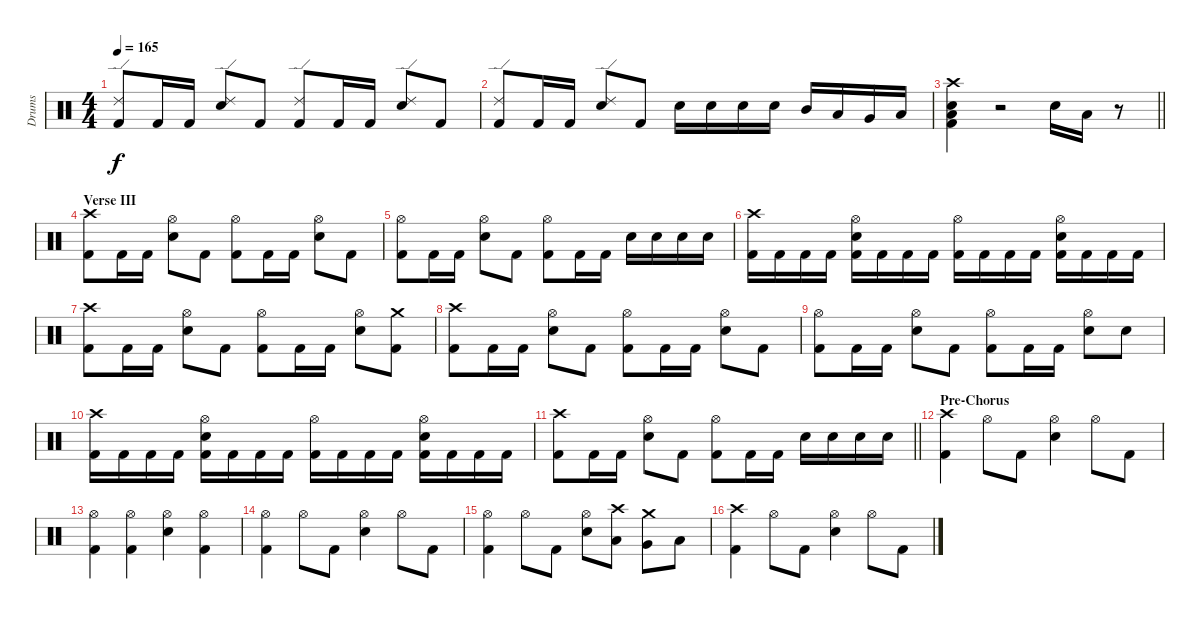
\track ("Drums" "Drums") {instrument percussion}
\staff {score}
\articulation defaults
\ts (4 4)
\tempo 165
\clef neutral
\ks c
("Ride (edge) 2" "Kick (hit) 2").8{dy f} "Kick (hit) 2".16 "Kick (hit) 2".16 ("Ride (edge) 2" "Snare (hit) 2").8 "Kick (hit) 2".8 ("Ride (edge) 2" "Kick (hit) 2").8 "Kick (hit) 2".16 "Kick (hit) 2".16 ("Ride (edge) 2" "Snare (hit) 2").8 "Kick (hit) 2".8 |
("Ride (edge) 2" "Kick (hit) 2").8 "Kick (hit) 2".16 "Kick (hit) 2".16 ("Ride (edge) 2" "Snare (hit) 2").8 "Kick (hit) 2".8 "Snare (hit) 2".16 "Snare (hit) 2".16 "Snare (hit) 2".16 "Snare (hit) 2".16 "Mid Tom (hit)".16 "Low Tom (hit)".16 "Very Low Tom (hit)".16 "Low Floor Tom (hit)".16 |
\barLineRight lightlight
("Crash high (hit)" "Snare (hit) 2" "Low Floor Tom (hit)" "Kick (hit) 2").4 r.2 "Snare (hit) 2".16 "Low Tom (hit)".16 r.8 |
\section ("" "Verse III")
("Crash high (hit)" "Kick (hit) 2").8 "Kick (hit) 2".16 "Kick (hit) 2".16 ("Hi-Hat (open)" "Snare (hit) 2").8 "Kick (hit) 2".8 ("Hi-Hat (open)" "Kick (hit) 2").8 "Kick (hit) 2".16 "Kick (hit) 2".16 ("Hi-Hat (open)" "Snare (hit) 2").8 "Kick (hit) 2".8 |
("Hi-Hat (open)" "Kick (hit) 2").8 "Kick (hit) 2".16 "Kick (hit) 2".16 ("Hi-Hat (open)" "Snare (hit) 2").8 "Kick (hit) 2".8 ("Hi-Hat (open)" "Kick (hit) 2").8 "Kick (hit) 2".16 "Kick (hit) 2".16 "Snare (hit) 2".16 "Snare (hit) 2".16 "Snare (hit) 2".16 "Snare (hit) 2".16 |
("Crash high (hit)" "Kick (hit) 2").16 "Kick (hit) 2".16 "Kick (hit) 2".16 "Kick (hit) 2".16 ("Hi-Hat (open)" "Snare (hit) 2" "Kick (hit) 2").16 "Kick (hit) 2".16 "Kick (hit) 2".16 "Kick (hit) 2".16 ("Hi-Hat (open)" "Kick (hit) 2").16 "Kick (hit) 2".16 "Kick (hit) 2".16 "Kick (hit) 2".16 ("Hi-Hat (open)" "Snare (hit) 2" "Kick (hit) 2").16 "Kick (hit) 2".16 "Kick (hit) 2".16 "Kick (hit) 2".16 |
("Crash high (hit)" "Kick (hit) 2").8 "Kick (hit) 2".16 "Kick (hit) 2".16 ("Hi-Hat (open)" "Snare (hit) 2").8 "Kick (hit) 2".8 ("Hi-Hat (open)" "Kick (hit) 2").8 "Kick (hit) 2".16 "Kick (hit) 2".16 ("Hi-Hat (open)" "Snare (hit) 2").8 ("Crash medium (hit)" "Kick (hit) 2").8 |
("Crash high (hit)" "Kick (hit) 2").8 "Kick (hit) 2".16 "Kick (hit) 2".16 ("Hi-Hat (open)" "Snare (hit) 2").8 "Kick (hit) 2".8 ("Hi-Hat (open)" "Kick (hit) 2").8 "Kick (hit) 2".16 "Kick (hit) 2".16 ("Hi-Hat (open)" "Snare (hit) 2").8 "Kick (hit) 2".8 |
("Hi-Hat (open)" "Kick (hit) 2").8 "Kick (hit) 2".16 "Kick (hit) 2".16 ("Hi-Hat (open)" "Snare (hit) 2").8 "Kick (hit) 2".8 ("Hi-Hat (open)" "Kick (hit) 2").8 "Kick (hit) 2".16 "Kick (hit) 2".16 ("Hi-Hat (open)" "Snare (hit) 2").8 "Snare (hit) 2".8 |
("Crash high (hit)" "Kick (hit) 2").16 "Kick (hit) 2".16 "Kick (hit) 2".16 "Kick (hit) 2".16 ("Hi-Hat (open)" "Snare (hit) 2" "Kick (hit) 2").16 "Kick (hit) 2".16 "Kick (hit) 2".16 "Kick (hit) 2".16 ("Hi-Hat (open)" "Kick (hit) 2").16 "Kick (hit) 2".16 "Kick (hit) 2".16 "Kick (hit) 2".16 ("Hi-Hat (open)" "Snare (hit) 2" "Kick (hit) 2").16 "Kick (hit) 2".16 "Kick (hit) 2".16 "Kick (hit) 2".16 |
\barLineRight lightlight
("Crash high (hit)" "Kick (hit) 2").8 "Kick (hit) 2".16 "Kick (hit) 2".16 ("Hi-Hat (open)" "Snare (hit) 2").8 "Kick (hit) 2".8 ("Hi-Hat (open)" "Kick (hit) 2").8 "Kick (hit) 2".16 "Kick (hit) 2".16 "Snare (hit) 2".16 "Snare (hit) 2".16 "Snare (hit) 2".16 "Snare (hit) 2".16 |
\section ("" "Pre-Chorus")
("Crash high (hit)" "Kick (hit) 2").4 "Hi-Hat (open)".8 "Kick (hit) 2".8 ("Hi-Hat (open)" "Snare (hit) 2").4 "Hi-Hat (open)".8 "Kick (hit) 2".8 |
("Hi-Hat (open)" "Kick (hit) 2").4 ("Hi-Hat (open)" "Kick (hit) 2").4 ("Hi-Hat (open)" "Snare (hit) 2").4 ("Hi-Hat (open)" "Kick (hit) 2").4 |
("Hi-Hat (open)" "Kick (hit) 2").4 "Hi-Hat (open)".8 "Kick (hit) 2".8 ("Hi-Hat (open)" "Snare (hit) 2").4 "Hi-Hat (open)".8 "Kick (hit) 2".8 |
("Hi-Hat (open)" "Kick (hit) 2").4 "Hi-Hat (open)".8 "Kick (hit) 2".8 ("Hi-Hat (open)" "Snare (hit) 2").8 ("Crash high (hit)" "Low Tom (hit)").8 ("Crash medium (hit)" "Very Low Tom (hit)").8 "Low Floor Tom (hit)".8 |
("Crash high (hit)" "Kick (hit) 2").4 "Hi-Hat (open)".8 "Kick (hit) 2".8 ("Hi-Hat (open)" "Snare (hit) 2").4 "Hi-Hat (open)".8 "Kick (hit) 2".8
